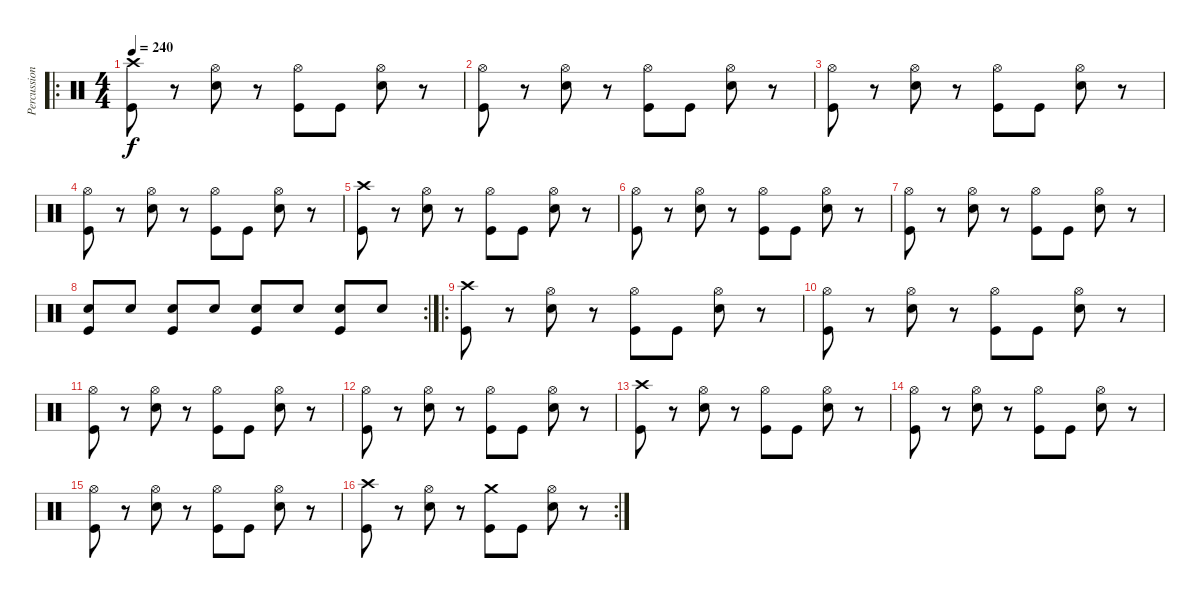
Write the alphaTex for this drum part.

\track ("Percussion" "Percussion") {instrument percussion}
\staff {score}
\articulation defaults
\ro
\ts (4 4)
\tempo 240
\clef neutral
\ks c
("Crash high (hit)" "Kick (hit)").8{dy f} r.8 ("Hi-Hat (open)" "Snare (hit) 2").8 r.8 ("Hi-Hat (open)" "Kick (hit)").8 "Kick (hit)".8 ("Hi-Hat (open)" "Snare (hit) 2").8 r.8 |
("Hi-Hat (open)" "Kick (hit)").8 r.8 ("Hi-Hat (open)" "Snare (hit) 2").8 r.8 ("Hi-Hat (open)" "Kick (hit)").8 "Kick (hit)".8 ("Hi-Hat (open)" "Snare (hit) 2").8 r.8 |
("Hi-Hat (open)" "Kick (hit)").8 r.8 ("Hi-Hat (open)" "Snare (hit) 2").8 r.8 ("Hi-Hat (open)" "Kick (hit)").8 "Kick (hit)".8 ("Hi-Hat (open)" "Snare (hit) 2").8 r.8 |
("Hi-Hat (open)" "Kick (hit)").8 r.8 ("Hi-Hat (open)" "Snare (hit) 2").8 r.8 ("Hi-Hat (open)" "Kick (hit)").8 "Kick (hit)".8 ("Hi-Hat (open)" "Snare (hit) 2").8 r.8 |
("Crash high (hit)" "Kick (hit)").8 r.8 ("Hi-Hat (open)" "Snare (hit) 2").8 r.8 ("Hi-Hat (open)" "Kick (hit)").8 "Kick (hit)".8 ("Hi-Hat (open)" "Snare (hit) 2").8 r.8 |
("Hi-Hat (open)" "Kick (hit)").8 r.8 ("Hi-Hat (open)" "Snare (hit) 2").8 r.8 ("Hi-Hat (open)" "Kick (hit)").8 "Kick (hit)".8 ("Hi-Hat (open)" "Snare (hit) 2").8 r.8 |
("Hi-Hat (open)" "Kick (hit)").8 r.8 ("Hi-Hat (open)" "Snare (hit) 2").8 r.8 ("Hi-Hat (open)" "Kick (hit)").8 "Kick (hit)".8 ("Hi-Hat (open)" "Snare (hit) 2").8 r.8 |
\rc 2
("Snare (hit) 2" "Kick (hit)").8 "Snare (hit) 2".8 ("Snare (hit) 2" "Kick (hit)").8 "Snare (hit) 2".8 ("Snare (hit) 2" "Kick (hit)").8 "Snare (hit) 2".8 ("Snare (hit) 2" "Kick (hit)").8 "Snare (hit) 2".8 |
\ro
("Crash high (hit)" "Kick (hit)").8 r.8 ("Hi-Hat (open)" "Snare (hit) 2").8 r.8 ("Hi-Hat (open)" "Kick (hit)").8 "Kick (hit)".8 ("Hi-Hat (open)" "Snare (hit) 2").8 r.8 |
("Hi-Hat (open)" "Kick (hit)").8 r.8 ("Hi-Hat (open)" "Snare (hit) 2").8 r.8 ("Hi-Hat (open)" "Kick (hit)").8 "Kick (hit)".8 ("Hi-Hat (open)" "Snare (hit) 2").8 r.8 |
("Hi-Hat (open)" "Kick (hit)").8 r.8 ("Hi-Hat (open)" "Snare (hit) 2").8 r.8 ("Hi-Hat (open)" "Kick (hit)").8 "Kick (hit)".8 ("Hi-Hat (open)" "Snare (hit) 2").8 r.8 |
("Hi-Hat (open)" "Kick (hit)").8 r.8 ("Hi-Hat (open)" "Snare (hit) 2").8 r.8 ("Hi-Hat (open)" "Kick (hit)").8 "Kick (hit)".8 ("Hi-Hat (open)" "Snare (hit) 2").8 r.8 |
("Crash high (hit)" "Kick (hit)").8 r.8 ("Hi-Hat (open)" "Snare (hit) 2").8 r.8 ("Hi-Hat (open)" "Kick (hit)").8 "Kick (hit)".8 ("Hi-Hat (open)" "Snare (hit) 2").8 r.8 |
("Hi-Hat (open)" "Kick (hit)").8 r.8 ("Hi-Hat (open)" "Snare (hit) 2").8 r.8 ("Hi-Hat (open)" "Kick (hit)").8 "Kick (hit)".8 ("Hi-Hat (open)" "Snare (hit) 2").8 r.8 |
("Hi-Hat (open)" "Kick (hit)").8 r.8 ("Hi-Hat (open)" "Snare (hit) 2").8 r.8 ("Hi-Hat (open)" "Kick (hit)").8 "Kick (hit)".8 ("Hi-Hat (open)" "Snare (hit) 2").8 r.8 |
\rc 2
("Crash high (hit)" "Kick (hit)").8 r.8 ("Hi-Hat (open)" "Snare (hit) 2").8 r.8 ("Crash medium (hit)" "Kick (hit)").8 "Kick (hit)".8 ("Hi-Hat (open)" "Snare (hit) 2").8 r.8
